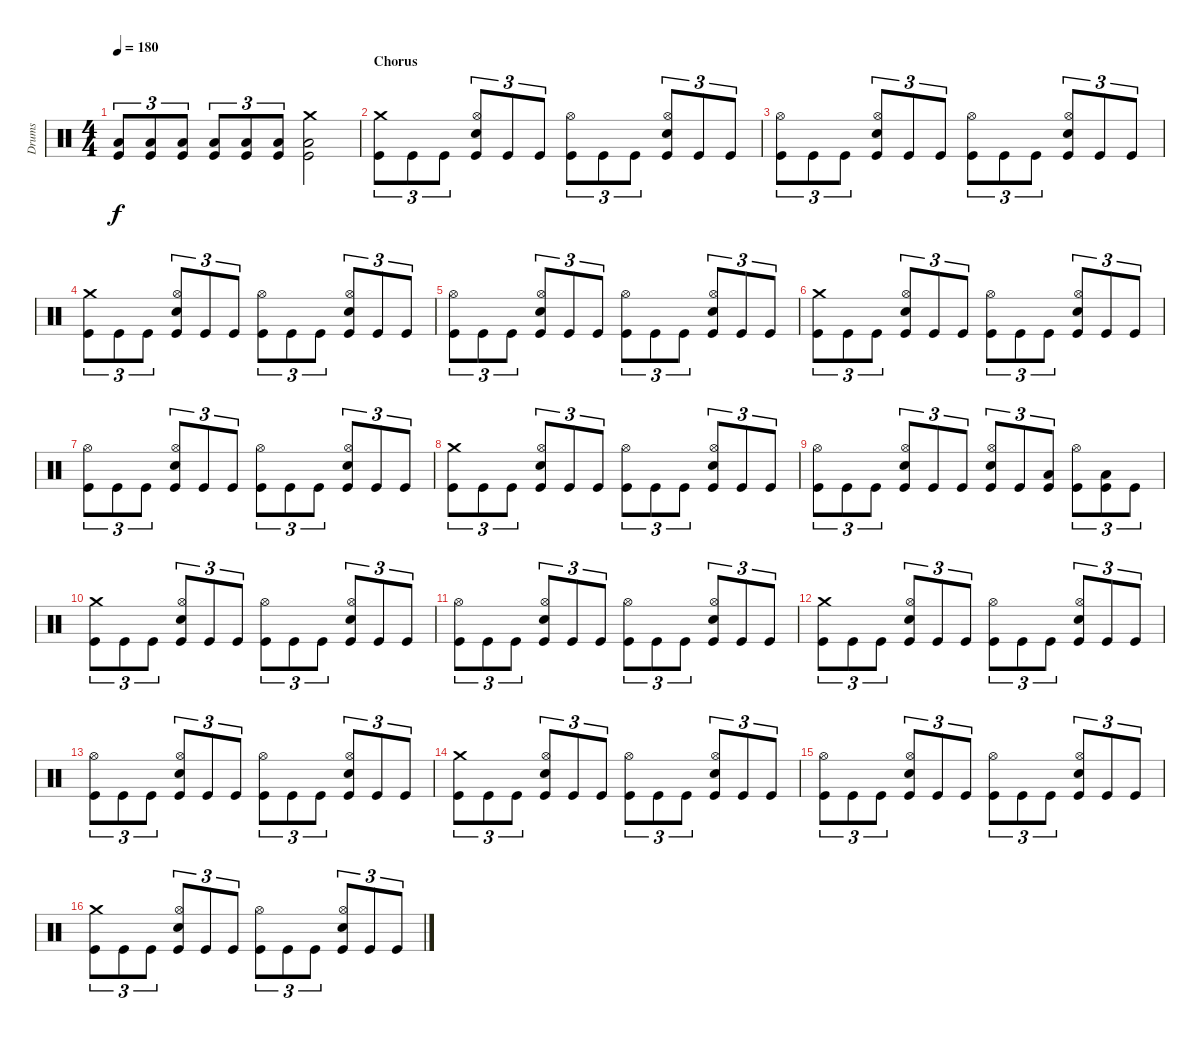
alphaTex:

\track ("Drums" "Drums") {instrument percussion}
\staff {score}
\articulation defaults
\ts (4 4)
\tempo 180
\clef neutral
\ks c
("Low Tom (hit)" "Kick (hit)").8{tu (3 2) dy f} ("Low Tom (hit)" "Kick (hit)").8{tu (3 2)} ("Low Tom (hit)" "Kick (hit)").8{tu (3 2)} ("Low Tom (hit)" "Kick (hit)").8{tu (3 2)} ("Low Tom (hit)" "Kick (hit)").8{tu (3 2)} ("Low Tom (hit)" "Kick (hit)").8{tu (3 2)} ("Crash medium (hit)" "Low Tom (hit)" "Kick (hit)").2 |
\section ("" "Chorus")
("Crash medium (hit)" "Kick (hit)").8{tu (3 2)} "Kick (hit)".8{tu (3 2)} "Kick (hit)".8{tu (3 2)} ("Hi-Hat (open)" "Electric Snare (hit)" "Kick (hit)").8{tu (3 2)} "Kick (hit)".8{tu (3 2)} "Kick (hit)".8{tu (3 2)} ("Hi-Hat (open)" "Kick (hit)").8{tu (3 2)} "Kick (hit)".8{tu (3 2)} "Kick (hit)".8{tu (3 2)} ("Hi-Hat (open)" "Electric Snare (hit)" "Kick (hit)").8{tu (3 2)} "Kick (hit)".8{tu (3 2)} "Kick (hit)".8{tu (3 2)} |
("Hi-Hat (open)" "Kick (hit)").8{tu (3 2)} "Kick (hit)".8{tu (3 2)} "Kick (hit)".8{tu (3 2)} ("Hi-Hat (open)" "Electric Snare (hit)" "Kick (hit)").8{tu (3 2)} "Kick (hit)".8{tu (3 2)} "Kick (hit)".8{tu (3 2)} ("Hi-Hat (open)" "Kick (hit)").8{tu (3 2)} "Kick (hit)".8{tu (3 2)} "Kick (hit)".8{tu (3 2)} ("Hi-Hat (open)" "Electric Snare (hit)" "Kick (hit)").8{tu (3 2)} "Kick (hit)".8{tu (3 2)} "Kick (hit)".8{tu (3 2)} |
("Crash medium (hit)" "Kick (hit)").8{tu (3 2)} "Kick (hit)".8{tu (3 2)} "Kick (hit)".8{tu (3 2)} ("Hi-Hat (open)" "Electric Snare (hit)" "Kick (hit)").8{tu (3 2)} "Kick (hit)".8{tu (3 2)} "Kick (hit)".8{tu (3 2)} ("Hi-Hat (open)" "Kick (hit)").8{tu (3 2)} "Kick (hit)".8{tu (3 2)} "Kick (hit)".8{tu (3 2)} ("Hi-Hat (open)" "Electric Snare (hit)" "Kick (hit)").8{tu (3 2)} "Kick (hit)".8{tu (3 2)} "Kick (hit)".8{tu (3 2)} |
("Hi-Hat (open)" "Kick (hit)").8{tu (3 2)} "Kick (hit)".8{tu (3 2)} "Kick (hit)".8{tu (3 2)} ("Hi-Hat (open)" "Electric Snare (hit)" "Kick (hit)").8{tu (3 2)} "Kick (hit)".8{tu (3 2)} "Kick (hit)".8{tu (3 2)} ("Hi-Hat (open)" "Kick (hit)").8{tu (3 2)} "Kick (hit)".8{tu (3 2)} "Kick (hit)".8{tu (3 2)} ("Hi-Hat (open)" "Electric Snare (hit)" "Kick (hit)").8{tu (3 2)} "Kick (hit)".8{tu (3 2)} "Kick (hit)".8{tu (3 2)} |
("Crash medium (hit)" "Kick (hit)").8{tu (3 2)} "Kick (hit)".8{tu (3 2)} "Kick (hit)".8{tu (3 2)} ("Hi-Hat (open)" "Electric Snare (hit)" "Kick (hit)").8{tu (3 2)} "Kick (hit)".8{tu (3 2)} "Kick (hit)".8{tu (3 2)} ("Hi-Hat (open)" "Kick (hit)").8{tu (3 2)} "Kick (hit)".8{tu (3 2)} "Kick (hit)".8{tu (3 2)} ("Hi-Hat (open)" "Electric Snare (hit)" "Kick (hit)").8{tu (3 2)} "Kick (hit)".8{tu (3 2)} "Kick (hit)".8{tu (3 2)} |
("Hi-Hat (open)" "Kick (hit)").8{tu (3 2)} "Kick (hit)".8{tu (3 2)} "Kick (hit)".8{tu (3 2)} ("Hi-Hat (open)" "Electric Snare (hit)" "Kick (hit)").8{tu (3 2)} "Kick (hit)".8{tu (3 2)} "Kick (hit)".8{tu (3 2)} ("Hi-Hat (open)" "Kick (hit)").8{tu (3 2)} "Kick (hit)".8{tu (3 2)} "Kick (hit)".8{tu (3 2)} ("Hi-Hat (open)" "Electric Snare (hit)" "Kick (hit)").8{tu (3 2)} "Kick (hit)".8{tu (3 2)} "Kick (hit)".8{tu (3 2)} |
("Crash medium (hit)" "Kick (hit)").8{tu (3 2)} "Kick (hit)".8{tu (3 2)} "Kick (hit)".8{tu (3 2)} ("Hi-Hat (open)" "Electric Snare (hit)" "Kick (hit)").8{tu (3 2)} "Kick (hit)".8{tu (3 2)} "Kick (hit)".8{tu (3 2)} ("Hi-Hat (open)" "Kick (hit)").8{tu (3 2)} "Kick (hit)".8{tu (3 2)} "Kick (hit)".8{tu (3 2)} ("Hi-Hat (open)" "Electric Snare (hit)" "Kick (hit)").8{tu (3 2)} "Kick (hit)".8{tu (3 2)} "Kick (hit)".8{tu (3 2)} |
("Hi-Hat (open)" "Kick (hit)").8{tu (3 2)} "Kick (hit)".8{tu (3 2)} "Kick (hit)".8{tu (3 2)} ("Hi-Hat (open)" "Electric Snare (hit)" "Kick (hit)").8{tu (3 2)} "Kick (hit)".8{tu (3 2)} "Kick (hit)".8{tu (3 2)} ("Hi-Hat (open)" "Electric Snare (hit)" "Kick (hit)").8{tu (3 2)} "Kick (hit)".8{tu (3 2)} ("Low Tom (hit)" "Kick (hit)").8{tu (3 2)} ("Hi-Hat (open)" "Kick (hit)").8{tu (3 2)} ("Low Tom (hit)" "Kick (hit)").8{tu (3 2)} "Kick (hit)".8{tu (3 2)} |
("Crash medium (hit)" "Kick (hit)").8{tu (3 2)} "Kick (hit)".8{tu (3 2)} "Kick (hit)".8{tu (3 2)} ("Hi-Hat (open)" "Electric Snare (hit)" "Kick (hit)").8{tu (3 2)} "Kick (hit)".8{tu (3 2)} "Kick (hit)".8{tu (3 2)} ("Hi-Hat (open)" "Kick (hit)").8{tu (3 2)} "Kick (hit)".8{tu (3 2)} "Kick (hit)".8{tu (3 2)} ("Hi-Hat (open)" "Electric Snare (hit)" "Kick (hit)").8{tu (3 2)} "Kick (hit)".8{tu (3 2)} "Kick (hit)".8{tu (3 2)} |
("Hi-Hat (open)" "Kick (hit)").8{tu (3 2)} "Kick (hit)".8{tu (3 2)} "Kick (hit)".8{tu (3 2)} ("Hi-Hat (open)" "Electric Snare (hit)" "Kick (hit)").8{tu (3 2)} "Kick (hit)".8{tu (3 2)} "Kick (hit)".8{tu (3 2)} ("Hi-Hat (open)" "Kick (hit)").8{tu (3 2)} "Kick (hit)".8{tu (3 2)} "Kick (hit)".8{tu (3 2)} ("Hi-Hat (open)" "Electric Snare (hit)" "Kick (hit)").8{tu (3 2)} "Kick (hit)".8{tu (3 2)} "Kick (hit)".8{tu (3 2)} |
("Crash medium (hit)" "Kick (hit)").8{tu (3 2)} "Kick (hit)".8{tu (3 2)} "Kick (hit)".8{tu (3 2)} ("Hi-Hat (open)" "Electric Snare (hit)" "Kick (hit)").8{tu (3 2)} "Kick (hit)".8{tu (3 2)} "Kick (hit)".8{tu (3 2)} ("Hi-Hat (open)" "Kick (hit)").8{tu (3 2)} "Kick (hit)".8{tu (3 2)} "Kick (hit)".8{tu (3 2)} ("Hi-Hat (open)" "Electric Snare (hit)" "Kick (hit)").8{tu (3 2)} "Kick (hit)".8{tu (3 2)} "Kick (hit)".8{tu (3 2)} |
("Hi-Hat (open)" "Kick (hit)").8{tu (3 2)} "Kick (hit)".8{tu (3 2)} "Kick (hit)".8{tu (3 2)} ("Hi-Hat (open)" "Electric Snare (hit)" "Kick (hit)").8{tu (3 2)} "Kick (hit)".8{tu (3 2)} "Kick (hit)".8{tu (3 2)} ("Hi-Hat (open)" "Kick (hit)").8{tu (3 2)} "Kick (hit)".8{tu (3 2)} "Kick (hit)".8{tu (3 2)} ("Hi-Hat (open)" "Electric Snare (hit)" "Kick (hit)").8{tu (3 2)} "Kick (hit)".8{tu (3 2)} "Kick (hit)".8{tu (3 2)} |
("Crash medium (hit)" "Kick (hit)").8{tu (3 2)} "Kick (hit)".8{tu (3 2)} "Kick (hit)".8{tu (3 2)} ("Hi-Hat (open)" "Electric Snare (hit)" "Kick (hit)").8{tu (3 2)} "Kick (hit)".8{tu (3 2)} "Kick (hit)".8{tu (3 2)} ("Hi-Hat (open)" "Kick (hit)").8{tu (3 2)} "Kick (hit)".8{tu (3 2)} "Kick (hit)".8{tu (3 2)} ("Hi-Hat (open)" "Electric Snare (hit)" "Kick (hit)").8{tu (3 2)} "Kick (hit)".8{tu (3 2)} "Kick (hit)".8{tu (3 2)} |
("Hi-Hat (open)" "Kick (hit)").8{tu (3 2)} "Kick (hit)".8{tu (3 2)} "Kick (hit)".8{tu (3 2)} ("Hi-Hat (open)" "Electric Snare (hit)" "Kick (hit)").8{tu (3 2)} "Kick (hit)".8{tu (3 2)} "Kick (hit)".8{tu (3 2)} ("Hi-Hat (open)" "Kick (hit)").8{tu (3 2)} "Kick (hit)".8{tu (3 2)} "Kick (hit)".8{tu (3 2)} ("Hi-Hat (open)" "Electric Snare (hit)" "Kick (hit)").8{tu (3 2)} "Kick (hit)".8{tu (3 2)} "Kick (hit)".8{tu (3 2)} |
("Crash medium (hit)" "Kick (hit)").8{tu (3 2)} "Kick (hit)".8{tu (3 2)} "Kick (hit)".8{tu (3 2)} ("Hi-Hat (open)" "Electric Snare (hit)" "Kick (hit)").8{tu (3 2)} "Kick (hit)".8{tu (3 2)} "Kick (hit)".8{tu (3 2)} ("Hi-Hat (open)" "Kick (hit)").8{tu (3 2)} "Kick (hit)".8{tu (3 2)} "Kick (hit)".8{tu (3 2)} ("Hi-Hat (open)" "Electric Snare (hit)" "Kick (hit)").8{tu (3 2)} "Kick (hit)".8{tu (3 2)} "Kick (hit)".8{tu (3 2)}
